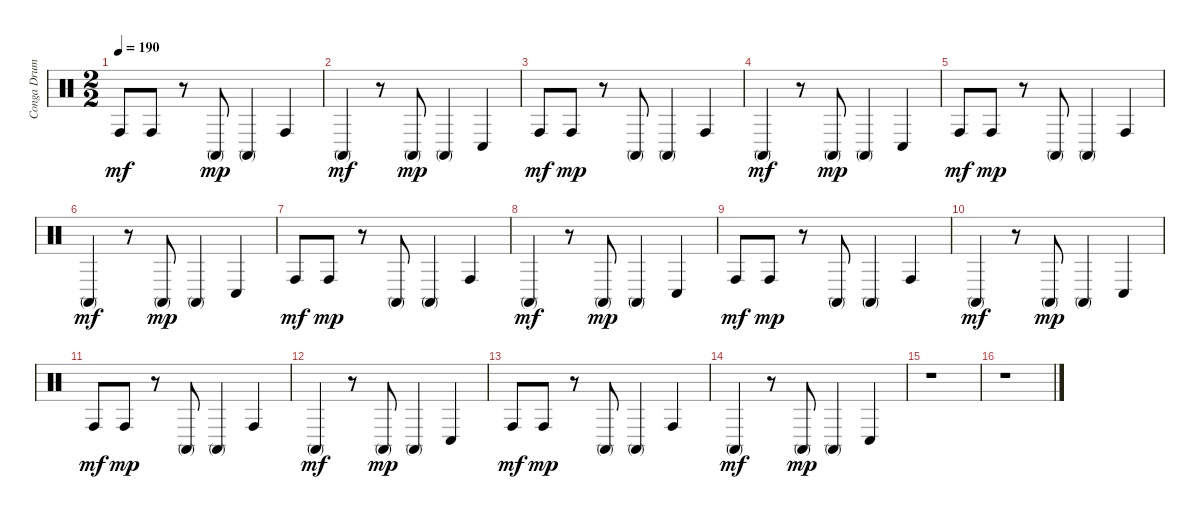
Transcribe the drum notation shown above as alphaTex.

\track ("Conga Drums" "Conga Drum") {instrument percussion}
\staff {score}
\articulation defaults
\ts (2 2)
\tempo 190
\clef neutral
\ks c "Conga high (hit)".8{dy mf} "Conga high (hit)".8
r.8 "Conga high (mute)".8{dy mp} "Conga high (mute)".4 "Conga high (hit)".4 |
"Conga high (mute)".4{dy mf} r.8 "Conga high (mute)".8{dy mp} "Conga high (mute)".4 "Conga low (hit)".4 |
"Conga high (hit)".8{dy mf} "Conga high (hit)".8{dy mp} r.8 "Conga high (mute)".8 "Conga high (mute)".4 "Conga high (hit)".4 |
"Conga high (mute)".4{dy mf} r.8 "Conga high (mute)".8{dy mp} "Conga high (mute)".4 "Conga low (hit)".4 |
"Conga high (hit)".8{dy mf} "Conga high (hit)".8{dy mp} r.8 "Conga high (mute)".8 "Conga high (mute)".4 "Conga high (hit)".4 |
"Conga high (mute)".4{dy mf} r.8 "Conga high (mute)".8{dy mp} "Conga high (mute)".4 "Conga low (hit)".4 |
"Conga high (hit)".8{dy mf} "Conga high (hit)".8{dy mp} r.8 "Conga high (mute)".8 "Conga high (mute)".4 "Conga high (hit)".4 |
"Conga high (mute)".4{dy mf} r.8 "Conga high (mute)".8{dy mp} "Conga high (mute)".4 "Conga low (hit)".4 |
"Conga high (hit)".8{dy mf} "Conga high (hit)".8{dy mp} r.8 "Conga high (mute)".8 "Conga high (mute)".4 "Conga high (hit)".4 |
"Conga high (mute)".4{dy mf} r.8 "Conga high (mute)".8{dy mp} "Conga high (mute)".4 "Conga low (hit)".4 |
"Conga high (hit)".8{dy mf} "Conga high (hit)".8{dy mp} r.8 "Conga high (mute)".8 "Conga high (mute)".4 "Conga high (hit)".4 |
"Conga high (mute)".4{dy mf} r.8 "Conga high (mute)".8{dy mp} "Conga high (mute)".4 "Conga low (hit)".4 |
"Conga high (hit)".8{dy mf} "Conga high (hit)".8{dy mp} r.8 "Conga high (mute)".8 "Conga high (mute)".4 "Conga high (hit)".4 |
"Conga high (mute)".4{dy mf} r.8 "Conga high (mute)".8{dy mp} "Conga high (mute)".4 "Conga low (hit)".4 |
r.1 |
r.1
